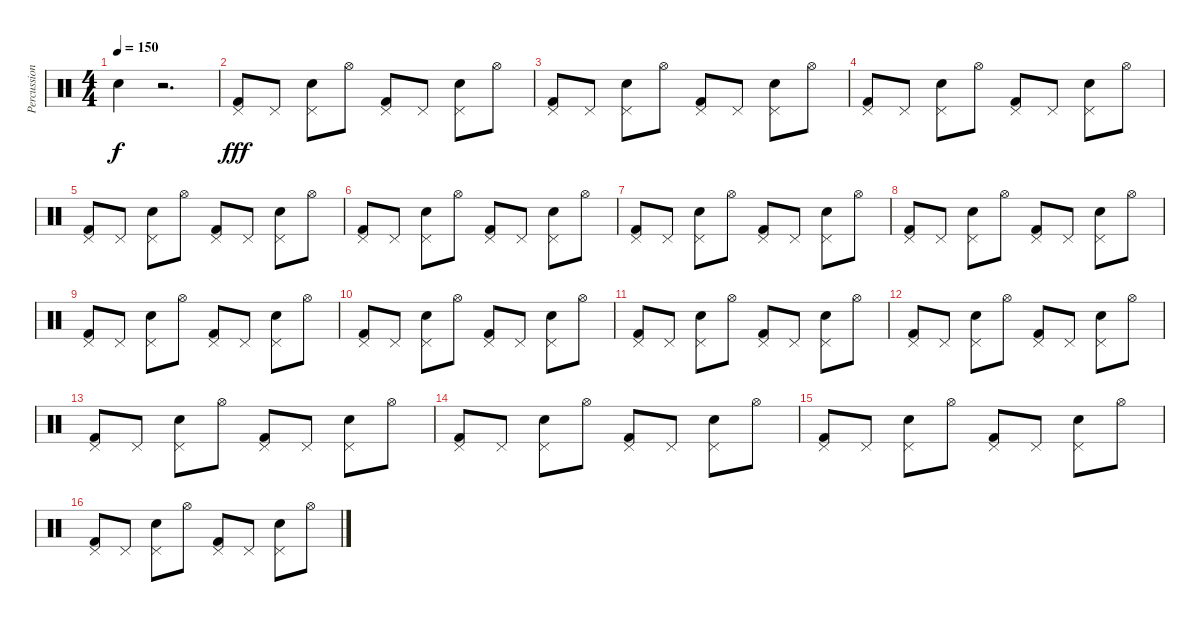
\track ("Percussions" "Percussion") {instrument percussion}
\staff {score}
\articulation defaults
\ts (4 4)
\tempo 150
\clef neutral
\ks c "Electric Snare (hit)".4{dy f}
r.2{d} |
("Pedal Hi-Hat (hit)" "Kick (hit) 2").8{dy fff} "Pedal Hi-Hat (hit)".8 ("Pedal Hi-Hat (hit)" "Electric Snare (hit)").8 "Hi-Hat (open)".8 ("Pedal Hi-Hat (hit)" "Kick (hit) 2").8 "Pedal Hi-Hat (hit)".8 ("Pedal Hi-Hat (hit)" "Electric Snare (hit)").8 "Hi-Hat (open)".8 |
("Pedal Hi-Hat (hit)" "Kick (hit) 2").8 "Pedal Hi-Hat (hit)".8 ("Pedal Hi-Hat (hit)" "Electric Snare (hit)").8 "Hi-Hat (open)".8 ("Pedal Hi-Hat (hit)" "Kick (hit) 2").8 "Pedal Hi-Hat (hit)".8 ("Pedal Hi-Hat (hit)" "Electric Snare (hit)").8 "Hi-Hat (open)".8 |
("Pedal Hi-Hat (hit)" "Kick (hit) 2").8 "Pedal Hi-Hat (hit)".8 ("Pedal Hi-Hat (hit)" "Electric Snare (hit)").8 "Hi-Hat (open)".8 ("Pedal Hi-Hat (hit)" "Kick (hit) 2").8 "Pedal Hi-Hat (hit)".8 ("Pedal Hi-Hat (hit)" "Electric Snare (hit)").8 "Hi-Hat (open)".8 |
("Pedal Hi-Hat (hit)" "Kick (hit) 2").8 "Pedal Hi-Hat (hit)".8 ("Pedal Hi-Hat (hit)" "Electric Snare (hit)").8 "Hi-Hat (open)".8 ("Pedal Hi-Hat (hit)" "Kick (hit) 2").8 "Pedal Hi-Hat (hit)".8 ("Pedal Hi-Hat (hit)" "Electric Snare (hit)").8 "Hi-Hat (open)".8 |
("Pedal Hi-Hat (hit)" "Kick (hit) 2").8 "Pedal Hi-Hat (hit)".8 ("Pedal Hi-Hat (hit)" "Electric Snare (hit)").8 "Hi-Hat (open)".8 ("Pedal Hi-Hat (hit)" "Kick (hit) 2").8 "Pedal Hi-Hat (hit)".8 ("Pedal Hi-Hat (hit)" "Electric Snare (hit)").8 "Hi-Hat (open)".8 |
("Pedal Hi-Hat (hit)" "Kick (hit) 2").8 "Pedal Hi-Hat (hit)".8 ("Pedal Hi-Hat (hit)" "Electric Snare (hit)").8 "Hi-Hat (open)".8 ("Pedal Hi-Hat (hit)" "Kick (hit) 2").8 "Pedal Hi-Hat (hit)".8 ("Pedal Hi-Hat (hit)" "Electric Snare (hit)").8 "Hi-Hat (open)".8 |
("Pedal Hi-Hat (hit)" "Kick (hit) 2").8 "Pedal Hi-Hat (hit)".8 ("Pedal Hi-Hat (hit)" "Electric Snare (hit)").8 "Hi-Hat (open)".8 ("Pedal Hi-Hat (hit)" "Kick (hit) 2").8 "Pedal Hi-Hat (hit)".8 ("Pedal Hi-Hat (hit)" "Electric Snare (hit)").8 "Hi-Hat (open)".8 |
("Pedal Hi-Hat (hit)" "Kick (hit) 2").8 "Pedal Hi-Hat (hit)".8 ("Pedal Hi-Hat (hit)" "Electric Snare (hit)").8 "Hi-Hat (open)".8 ("Pedal Hi-Hat (hit)" "Kick (hit) 2").8 "Pedal Hi-Hat (hit)".8 ("Pedal Hi-Hat (hit)" "Electric Snare (hit)").8 "Hi-Hat (open)".8 |
("Pedal Hi-Hat (hit)" "Kick (hit) 2").8 "Pedal Hi-Hat (hit)".8 ("Pedal Hi-Hat (hit)" "Electric Snare (hit)").8 "Hi-Hat (open)".8 ("Pedal Hi-Hat (hit)" "Kick (hit) 2").8 "Pedal Hi-Hat (hit)".8 ("Pedal Hi-Hat (hit)" "Electric Snare (hit)").8 "Hi-Hat (open)".8 |
("Pedal Hi-Hat (hit)" "Kick (hit) 2").8 "Pedal Hi-Hat (hit)".8 ("Pedal Hi-Hat (hit)" "Electric Snare (hit)").8 "Hi-Hat (open)".8 ("Pedal Hi-Hat (hit)" "Kick (hit) 2").8 "Pedal Hi-Hat (hit)".8 ("Pedal Hi-Hat (hit)" "Electric Snare (hit)").8 "Hi-Hat (open)".8 |
("Pedal Hi-Hat (hit)" "Kick (hit) 2").8 "Pedal Hi-Hat (hit)".8 ("Pedal Hi-Hat (hit)" "Electric Snare (hit)").8 "Hi-Hat (open)".8 ("Pedal Hi-Hat (hit)" "Kick (hit) 2").8 "Pedal Hi-Hat (hit)".8 ("Pedal Hi-Hat (hit)" "Electric Snare (hit)").8 "Hi-Hat (open)".8 |
("Pedal Hi-Hat (hit)" "Kick (hit) 2").8 "Pedal Hi-Hat (hit)".8 ("Pedal Hi-Hat (hit)" "Electric Snare (hit)").8 "Hi-Hat (open)".8 ("Pedal Hi-Hat (hit)" "Kick (hit) 2").8 "Pedal Hi-Hat (hit)".8 ("Pedal Hi-Hat (hit)" "Electric Snare (hit)").8 "Hi-Hat (open)".8 |
("Pedal Hi-Hat (hit)" "Kick (hit) 2").8 "Pedal Hi-Hat (hit)".8 ("Pedal Hi-Hat (hit)" "Electric Snare (hit)").8 "Hi-Hat (open)".8 ("Pedal Hi-Hat (hit)" "Kick (hit) 2").8 "Pedal Hi-Hat (hit)".8 ("Pedal Hi-Hat (hit)" "Electric Snare (hit)").8 "Hi-Hat (open)".8 |
("Pedal Hi-Hat (hit)" "Kick (hit) 2").8 "Pedal Hi-Hat (hit)".8 ("Pedal Hi-Hat (hit)" "Electric Snare (hit)").8 "Hi-Hat (open)".8 ("Pedal Hi-Hat (hit)" "Kick (hit) 2").8 "Pedal Hi-Hat (hit)".8 ("Pedal Hi-Hat (hit)" "Electric Snare (hit)").8 "Hi-Hat (open)".8 |
("Pedal Hi-Hat (hit)" "Kick (hit) 2").8 "Pedal Hi-Hat (hit)".8 ("Pedal Hi-Hat (hit)" "Electric Snare (hit)").8 "Hi-Hat (open)".8 ("Pedal Hi-Hat (hit)" "Kick (hit) 2").8 "Pedal Hi-Hat (hit)".8 ("Pedal Hi-Hat (hit)" "Electric Snare (hit)").8 "Hi-Hat (open)".8
